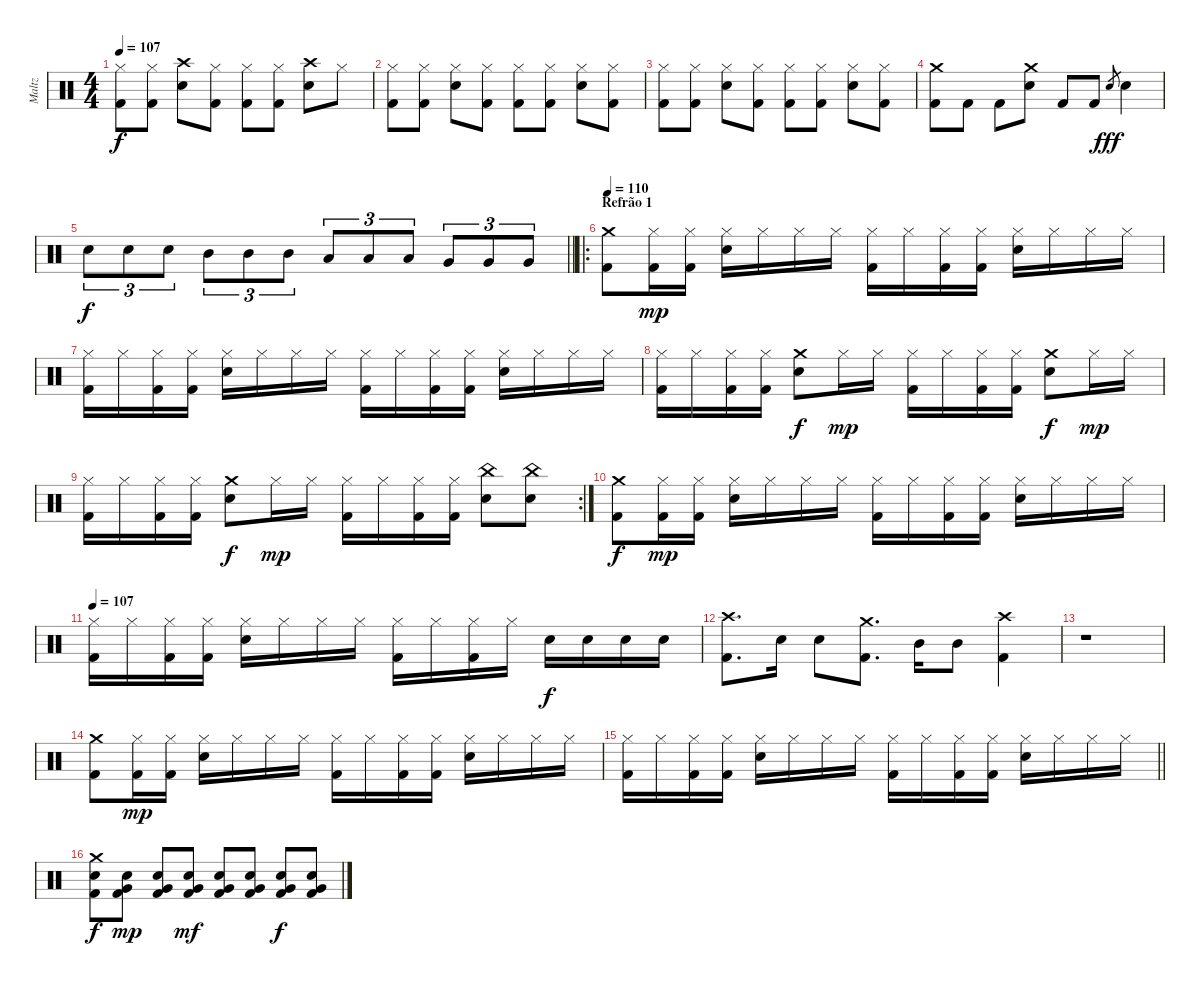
\track ("Maltz" "Maltz") {instrument percussion}
\staff {score}
\articulation defaults
\ts (4 4)
\tempo 107
\clef neutral
\ks c
("Hi-Hat (closed)" "Kick (hit) 2").8{dy f} ("Hi-Hat (closed)" "Kick (hit) 2").8 ("Crash high (hit)" "Snare (hit) 2").8 ("Hi-Hat (closed)" "Kick (hit) 2").8 ("Hi-Hat (closed)" "Kick (hit) 2").8 ("Hi-Hat (closed)" "Kick (hit) 2").8 ("Crash high (hit)" "Snare (hit) 2").8 "Hi-Hat (closed)".8 |
("Hi-Hat (closed)" "Kick (hit) 2").8 ("Hi-Hat (closed)" "Kick (hit) 2").8 ("Hi-Hat (closed)" "Snare (hit) 2").8 ("Hi-Hat (closed)" "Kick (hit) 2").8 ("Hi-Hat (closed)" "Kick (hit) 2").8 ("Hi-Hat (closed)" "Kick (hit) 2").8 ("Hi-Hat (closed)" "Snare (hit) 2").8 ("Hi-Hat (closed)" "Kick (hit) 2").8 |
("Hi-Hat (closed)" "Kick (hit) 2").8 ("Hi-Hat (closed)" "Kick (hit) 2").8 ("Hi-Hat (closed)" "Snare (hit) 2").8 ("Hi-Hat (closed)" "Kick (hit) 2").8 ("Hi-Hat (closed)" "Kick (hit) 2").8 ("Hi-Hat (closed)" "Kick (hit) 2").8 ("Hi-Hat (closed)" "Snare (hit) 2").8 ("Hi-Hat (closed)" "Kick (hit) 2").8 |
("Crash medium (hit)" "Kick (hit) 2").8 "Kick (hit) 2".8 "Kick (hit) 2".8 ("Crash medium (hit)" "Snare (hit) 2").8 "Kick (hit) 2".8 "Kick (hit) 2".8 "Snare (hit) 2".8{gr dy fff} "Snare (hit) 2".4 |
\barLineRight lightlight "Snare (hit) 2".8{tu (3 2) dy f} "Snare (hit) 2".8{tu (3 2)} "Snare (hit) 2".8{tu (3 2)} "Mid Tom (hit)".8{tu (3 2)} "Mid Tom (hit)".8{tu (3 2)} "Mid Tom (hit)".8{tu (3 2)} "Low Tom (hit)".8{tu (3 2)} "Low Tom (hit)".8{tu (3 2)} "Low Tom (hit)".8{tu (3 2)} "Very Low Tom (hit)".8{tu (3 2)} "Very Low Tom (hit)".8{tu (3 2)} "Very Low Tom (hit)".8{tu (3 2)}
|
\ro
\section ("" "Refrão 1")
\tempo 110
("Crash medium (hit)" "Kick (hit) 2").8 ("Hi-Hat (closed)" "Kick (hit) 2").16{dy mp} ("Hi-Hat (closed)" "Kick (hit) 2").16 ("Hi-Hat (closed)" "Snare (hit) 2").16 "Hi-Hat (closed)".16 "Hi-Hat (closed)".16 "Hi-Hat (closed)".16 ("Hi-Hat (closed)" "Kick (hit) 2").16 "Hi-Hat (closed)".16 ("Hi-Hat (closed)" "Kick (hit) 2").16 ("Hi-Hat (closed)" "Kick (hit) 2").16 ("Hi-Hat (closed)" "Snare (hit) 2").16 "Hi-Hat (closed)".16 "Hi-Hat (closed)".16 "Hi-Hat (closed)".16 |
("Hi-Hat (closed)" "Kick (hit) 2").16 "Hi-Hat (closed)".16 ("Hi-Hat (closed)" "Kick (hit) 2").16 ("Hi-Hat (closed)" "Kick (hit) 2").16 ("Hi-Hat (closed)" "Snare (hit) 2").16 "Hi-Hat (closed)".16 "Hi-Hat (closed)".16 "Hi-Hat (closed)".16 ("Hi-Hat (closed)" "Kick (hit) 2").16 "Hi-Hat (closed)".16 ("Hi-Hat (closed)" "Kick (hit) 2").16 ("Hi-Hat (closed)" "Kick (hit) 2").16 ("Hi-Hat (closed)" "Snare (hit) 2").16 "Hi-Hat (closed)".16 "Hi-Hat (closed)".16 "Hi-Hat (closed)".16 |
("Hi-Hat (closed)" "Kick (hit) 2").16 "Hi-Hat (closed)".16 ("Hi-Hat (closed)" "Kick (hit) 2").16 ("Hi-Hat (closed)" "Kick (hit) 2").16 ("Crash medium (hit)" "Snare (hit) 2").8{dy f} "Hi-Hat (closed)".16{dy mp} "Hi-Hat (closed)".16 ("Hi-Hat (closed)" "Kick (hit) 2").16 "Hi-Hat (closed)".16 ("Hi-Hat (closed)" "Kick (hit) 2").16 ("Hi-Hat (closed)" "Kick (hit) 2").16 ("Crash medium (hit)" "Snare (hit) 2").8{dy f} "Hi-Hat (closed)".16{dy mp} "Hi-Hat (closed)".16 |
\rc 2
("Hi-Hat (closed)" "Kick (hit) 2").16 "Hi-Hat (closed)".16 ("Hi-Hat (closed)" "Kick (hit) 2").16 ("Hi-Hat (closed)" "Kick (hit) 2").16 ("Crash medium (hit)" "Snare (hit) 2").8{dy f} "Hi-Hat (closed)".16{dy mp} "Hi-Hat (closed)".16 ("Hi-Hat (closed)" "Kick (hit) 2").16 "Hi-Hat (closed)".16 ("Hi-Hat (closed)" "Kick (hit) 2").16 ("Hi-Hat (closed)" "Kick (hit) 2").16 ("China (hit)" "Snare (hit) 2").8 ("China (hit)" "Snare (hit) 2").8 |
("Crash medium (hit)" "Kick (hit) 2").8{dy f} ("Hi-Hat (closed)" "Kick (hit) 2").16{dy mp} ("Hi-Hat (closed)" "Kick (hit) 2").16 ("Hi-Hat (closed)" "Snare (hit) 2").16 "Hi-Hat (closed)".16 "Hi-Hat (closed)".16 "Hi-Hat (closed)".16 ("Hi-Hat (closed)" "Kick (hit) 2").16 "Hi-Hat (closed)".16 ("Hi-Hat (closed)" "Kick (hit) 2").16 ("Hi-Hat (closed)" "Kick (hit) 2").16 ("Hi-Hat (closed)" "Snare (hit) 2").16 "Hi-Hat (closed)".16 "Hi-Hat (closed)".16 "Hi-Hat (closed)".16 |
\tempo 107
("Hi-Hat (closed)" "Kick (hit) 2").16 "Hi-Hat (closed)".16 ("Hi-Hat (closed)" "Kick (hit) 2").16 ("Hi-Hat (closed)" "Kick (hit) 2").16 ("Hi-Hat (closed)" "Snare (hit) 2").16 "Hi-Hat (closed)".16 "Hi-Hat (closed)".16 "Hi-Hat (closed)".16 ("Hi-Hat (closed)" "Kick (hit) 2").16 "Hi-Hat (closed)".16 ("Hi-Hat (closed)" "Kick (hit) 2").16 "Hi-Hat (closed)".16 "Snare (hit) 2".16{dy f} "Snare (hit) 2".16 "Snare (hit) 2".16 "Snare (hit) 2".16 |
("Crash high (hit)" "Kick (hit) 2").8{d} "Snare (hit) 2".16 "Snare (hit) 2".8 ("Crash medium (hit)" "Kick (hit) 2").8{d} "Mid Tom (hit)".16 "Mid Tom (hit)".8 ("Crash high (hit)" "Kick (hit) 2").4 |
r.1 |
("Crash medium (hit)" "Kick (hit) 2").8 ("Hi-Hat (closed)" "Kick (hit) 2").16{dy mp} ("Hi-Hat (closed)" "Kick (hit) 2").16 ("Hi-Hat (closed)" "Snare (hit) 2").16 "Hi-Hat (closed)".16 "Hi-Hat (closed)".16 "Hi-Hat (closed)".16 ("Hi-Hat (closed)" "Kick (hit) 2").16 "Hi-Hat (closed)".16 ("Hi-Hat (closed)" "Kick (hit) 2").16 ("Hi-Hat (closed)" "Kick (hit) 2").16 ("Hi-Hat (closed)" "Snare (hit) 2").16 "Hi-Hat (closed)".16 "Hi-Hat (closed)".16 "Hi-Hat (closed)".16 |
\barLineRight lightlight
("Hi-Hat (closed)" "Kick (hit) 2").16 "Hi-Hat (closed)".16 ("Hi-Hat (closed)" "Kick (hit) 2").16 ("Hi-Hat (closed)" "Kick (hit) 2").16 ("Hi-Hat (closed)" "Snare (hit) 2").16 "Hi-Hat (closed)".16 "Hi-Hat (closed)".16 "Hi-Hat (closed)".16 ("Hi-Hat (closed)" "Kick (hit) 2").16 "Hi-Hat (closed)".16 ("Hi-Hat (closed)" "Kick (hit) 2").16 ("Hi-Hat (closed)" "Kick (hit) 2").16 ("Hi-Hat (closed)" "Snare (hit) 2").16 "Hi-Hat (closed)".16 "Hi-Hat (closed)".16 "Hi-Hat (closed)".16 |
("Crash medium (hit)" "Snare (hit) 2" "Kick (hit) 2").8{dy f} ("Very Low Tom (hit)" "Snare (hit) 2" "Kick (hit) 2").8{dy mp} ("Very Low Tom (hit)" "Snare (hit) 2" "Kick (hit) 2").8 ("Very Low Tom (hit)" "Snare (hit) 2" "Kick (hit) 2").8{dy mf} ("Very Low Tom (hit)" "Snare (hit) 2" "Kick (hit) 2").8 ("Very Low Tom (hit)" "Snare (hit) 2" "Kick (hit) 2").8 ("Very Low Tom (hit)" "Snare (hit) 2" "Kick (hit) 2").8{dy f} ("Very Low Tom (hit)" "Snare (hit) 2" "Kick (hit) 2").8
